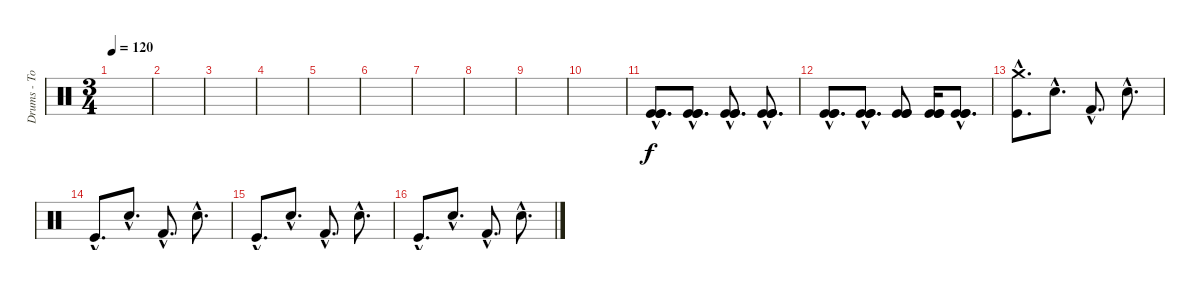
\track ("Drums - Tom" "Drums - To") {instrument percussion}
\staff {score}
\articulation defaults
\ts (3 4)
\tempo 120
\clef neutral
\ks c
|
|
|
|
|
|
|
|
|
|
("Kick (hit)"{hac} "Kick (hit)"{hac} "Kick (hit)"{hac}).8{d} ("Kick (hit)"{hac} "Kick (hit)"{hac} "Kick (hit)"{hac}).8{d} ("Kick (hit)"{hac} "Kick (hit)"{hac} "Kick (hit)"{hac}).8{d} ("Kick (hit)"{hac} "Kick (hit)"{hac} "Kick (hit)"{hac}).8{d} |
("Kick (hit)"{hac} "Kick (hit)"{hac} "Kick (hit)"{hac}).8{d} ("Kick (hit)"{hac} "Kick (hit)"{hac} "Kick (hit)"{hac}).8{d} ("Kick (hit)" "Kick (hit)" "Kick (hit)").8 ("Kick (hit)" "Kick (hit)" "Kick (hit)").16 ("Kick (hit)"{hac} "Kick (hit)"{hac} "Kick (hit)"{hac}).8{d} |
("Kick (hit)"{hac} "Crash medium (hit)"{hac}).8{d} "Snare (hit) 2"{hac}.8{d} "Kick (hit) 2"{hac}.8{d} "Snare (hit) 2"{hac}.8{d} |
"Kick (hit)"{hac}.8{d} "Snare (hit) 2"{hac}.8{d} "Kick (hit) 2"{hac}.8{d} "Snare (hit) 2"{hac}.8{d} |
"Kick (hit)"{hac}.8{d} "Snare (hit) 2"{hac}.8{d} "Kick (hit) 2"{hac}.8{d} "Snare (hit) 2"{hac}.8{d} |
"Kick (hit)"{hac}.8{d} "Snare (hit) 2"{hac}.8{d} "Kick (hit) 2"{hac}.8{d} "Snare (hit) 2"{hac}.8{d}
